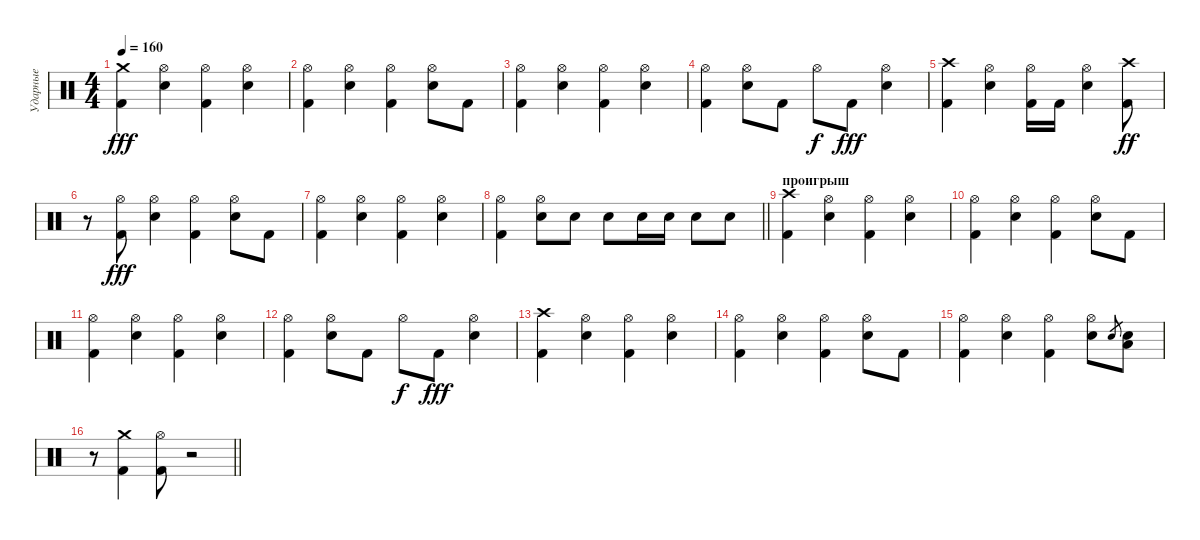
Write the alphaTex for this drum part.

\track ("Ударные" "Ударные") {instrument percussion}
\staff {score}
\articulation defaults
\ts (4 4)
\tempo 160
\clef neutral
\ks c
("Kick (hit) 2" "Crash medium (hit)").4{dy fff} ("Electric Snare (hit)" "Hi-Hat (open)").4 ("Kick (hit) 2" "Hi-Hat (open)").4 ("Electric Snare (hit)" "Hi-Hat (open)").4 |
("Kick (hit) 2" "Hi-Hat (open)").4 ("Electric Snare (hit)" "Hi-Hat (open)").4 ("Kick (hit) 2" "Hi-Hat (open)").4 ("Electric Snare (hit)" "Hi-Hat (open)").8 "Kick (hit) 2".8 |
("Kick (hit) 2" "Hi-Hat (open)").4 ("Electric Snare (hit)" "Hi-Hat (open)").4 ("Kick (hit) 2" "Hi-Hat (open)").4 ("Electric Snare (hit)" "Hi-Hat (open)").4 |
("Kick (hit) 2" "Hi-Hat (open)").4 ("Electric Snare (hit)" "Hi-Hat (open)").8 "Kick (hit) 2".8 "Hi-Hat (open)".8{dy f} "Kick (hit) 2".8{dy fff} ("Electric Snare (hit)" "Hi-Hat (open)").4 |
("Kick (hit) 2" "Crash high (hit)").4 ("Electric Snare (hit)" "Hi-Hat (open)").4 ("Kick (hit) 2" "Hi-Hat (open)").16 "Kick (hit) 2".16 ("Electric Snare (hit)" "Hi-Hat (open)").4 ("Kick (hit) 2" "Crash high (hit)").8{dy ff} |
r.8 ("Kick (hit) 2" "Hi-Hat (open)").8{dy fff} ("Electric Snare (hit)" "Hi-Hat (open)").4 ("Kick (hit) 2" "Hi-Hat (open)").4 ("Electric Snare (hit)" "Hi-Hat (open)").8 "Kick (hit) 2".8 |
("Kick (hit) 2" "Hi-Hat (open)").4 ("Electric Snare (hit)" "Hi-Hat (open)").4 ("Kick (hit) 2" "Hi-Hat (open)").4 ("Electric Snare (hit)" "Hi-Hat (open)").4 |
\barLineRight lightlight
("Kick (hit) 2" "Hi-Hat (open)").4 ("Electric Snare (hit)" "Hi-Hat (open)").8 "Electric Snare (hit)".8 "Electric Snare (hit)".8 "Electric Snare (hit)".16 "Electric Snare (hit)".16 "Electric Snare (hit)".8 "Electric Snare (hit)".8 |
\section ("" "проигрыш")
("Kick (hit) 2" "Crash high (hit)").4 ("Electric Snare (hit)" "Hi-Hat (open)").4 ("Kick (hit) 2" "Hi-Hat (open)").4 ("Electric Snare (hit)" "Hi-Hat (open)").4 |
("Kick (hit) 2" "Hi-Hat (open)").4 ("Electric Snare (hit)" "Hi-Hat (open)").4 ("Kick (hit) 2" "Hi-Hat (open)").4 ("Electric Snare (hit)" "Hi-Hat (open)").8 "Kick (hit) 2".8 |
("Kick (hit) 2" "Hi-Hat (open)").4 ("Electric Snare (hit)" "Hi-Hat (open)").4 ("Kick (hit) 2" "Hi-Hat (open)").4 ("Electric Snare (hit)" "Hi-Hat (open)").4 |
("Kick (hit) 2" "Hi-Hat (open)").4 ("Electric Snare (hit)" "Hi-Hat (open)").8 "Kick (hit) 2".8 "Hi-Hat (open)".8{dy f} "Kick (hit) 2".8{dy fff} ("Electric Snare (hit)" "Hi-Hat (open)").4 |
("Kick (hit) 2" "Crash high (hit)").4 ("Electric Snare (hit)" "Hi-Hat (open)").4 ("Kick (hit) 2" "Hi-Hat (open)").4 ("Electric Snare (hit)" "Hi-Hat (open)").4 |
("Kick (hit) 2" "Hi-Hat (open)").4 ("Electric Snare (hit)" "Hi-Hat (open)").4 ("Kick (hit) 2" "Hi-Hat (open)").4 ("Electric Snare (hit)" "Hi-Hat (open)").8 "Kick (hit) 2".8 |
("Kick (hit) 2" "Hi-Hat (open)").4 ("Electric Snare (hit)" "Hi-Hat (open)").4 ("Kick (hit) 2" "Hi-Hat (open)").4 ("Electric Snare (hit)" "Hi-Hat (open)").8 "Electric Snare (hit)".8{gr} ("Electric Snare (hit)" "Low Floor Tom (hit)").8 |
\barLineRight lightlight
r.8 ("Kick (hit) 2" "Crash medium (hit)").4 ("Kick (hit) 2" "Hi-Hat (open)").8 r.2
